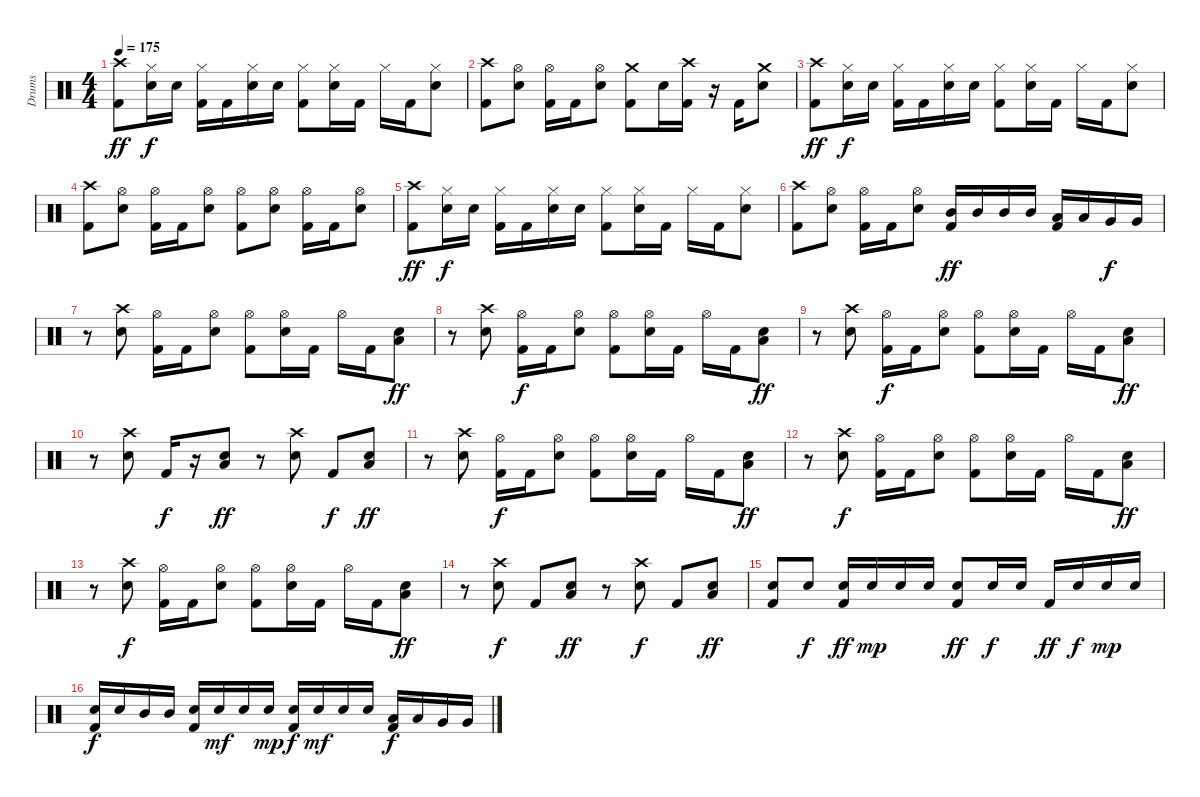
\track ("Drums" "Drums") {instrument percussion}
\staff {score}
\articulation defaults
\ts (4 4)
\tempo 175
\clef neutral
\ks c
("Crash high (hit)" "Kick (hit) 2").8{dy ff} ("Hi-Hat (closed)" "Electric Snare (hit)").16{dy f} "Electric Snare (hit)".16 ("Hi-Hat (closed)" "Kick (hit) 2").16 "Kick (hit) 2".16 ("Hi-Hat (closed)" "Electric Snare (hit)").16 "Electric Snare (hit)".16 ("Hi-Hat (closed)" "Kick (hit) 2").8 ("Hi-Hat (closed)" "Electric Snare (hit)").16 "Kick (hit) 2".16 "Hi-Hat (closed)".16 "Kick (hit) 2".16 ("Hi-Hat (closed)" "Electric Snare (hit)").8 |
("Crash high (hit)" "Kick (hit) 2").8 ("Hi-Hat (open)" "Electric Snare (hit)").8 ("Hi-Hat (open)" "Kick (hit) 2").16 "Kick (hit) 2".16 ("Hi-Hat (open)" "Electric Snare (hit)").8 ("Crash medium (hit)" "Kick (hit) 2").8 "Electric Snare (hit)".16 ("Crash high (hit)" "Kick (hit) 2").16 r.16 "Kick (hit) 2".16 ("Crash medium (hit)" "Electric Snare (hit)").8 |
("Crash high (hit)" "Kick (hit) 2").8{dy ff} ("Hi-Hat (closed)" "Electric Snare (hit)").16{dy f} "Electric Snare (hit)".16 ("Hi-Hat (closed)" "Kick (hit) 2").16 "Kick (hit) 2".16 ("Hi-Hat (closed)" "Electric Snare (hit)").16 "Electric Snare (hit)".16 ("Hi-Hat (closed)" "Kick (hit) 2").8 ("Hi-Hat (closed)" "Electric Snare (hit)").16 "Kick (hit) 2".16 "Hi-Hat (closed)".16 "Kick (hit) 2".16 ("Hi-Hat (closed)" "Electric Snare (hit)").8 |
("Crash high (hit)" "Kick (hit) 2").8 ("Hi-Hat (open)" "Electric Snare (hit)").8 ("Hi-Hat (open)" "Kick (hit) 2").16 "Kick (hit) 2".16 ("Hi-Hat (open)" "Electric Snare (hit)").8 ("Hi-Hat (open)" "Kick (hit) 2").8 ("Hi-Hat (open)" "Electric Snare (hit)").8 ("Hi-Hat (open)" "Kick (hit) 2").16 "Kick (hit) 2".16 ("Hi-Hat (open)" "Electric Snare (hit)").8 |
("Crash high (hit)" "Kick (hit) 2").8{dy ff} ("Hi-Hat (closed)" "Electric Snare (hit)").16{dy f} "Electric Snare (hit)".16 ("Hi-Hat (closed)" "Kick (hit) 2").16 "Kick (hit) 2".16 ("Hi-Hat (closed)" "Electric Snare (hit)").16 "Electric Snare (hit)".16 ("Hi-Hat (closed)" "Kick (hit) 2").8 ("Hi-Hat (closed)" "Electric Snare (hit)").16 "Kick (hit) 2".16 "Hi-Hat (closed)".16 "Kick (hit) 2".16 ("Hi-Hat (closed)" "Electric Snare (hit)").8 |
("Crash high (hit)" "Kick (hit) 2").8 ("Hi-Hat (open)" "Electric Snare (hit)").8 ("Hi-Hat (open)" "Kick (hit) 2").16 "Kick (hit) 2".16 ("Hi-Hat (open)" "Electric Snare (hit)").8 ("Mid Tom (hit)" "Kick (hit) 2").16{dy ff} "Mid Tom (hit)".16 "Mid Tom (hit)".16 "Mid Tom (hit)".16 ("Low Tom (hit)" "Kick (hit) 2").16 "Low Tom (hit)".16 "Very Low Tom (hit)".16{dy f} "Very Low Tom (hit)".16 |
r.8 ("Crash high (hit)" "Electric Snare (hit)").8 ("Hi-Hat (open)" "Kick (hit) 2").16 "Kick (hit) 2".16 ("Hi-Hat (open)" "Electric Snare (hit)").8 ("Hi-Hat (open)" "Kick (hit) 2").8 ("Hi-Hat (open)" "Electric Snare (hit)").16 "Kick (hit) 2".16 "Hi-Hat (open)".16 "Kick (hit) 2".16 ("Low Floor Tom (hit)" "Electric Snare (hit)").8{dy ff} |
r.8 ("Crash high (hit)" "Electric Snare (hit)").8 ("Hi-Hat (open)" "Kick (hit) 2").16{dy f} "Kick (hit) 2".16 ("Hi-Hat (open)" "Electric Snare (hit)").8 ("Hi-Hat (open)" "Kick (hit) 2").8 ("Hi-Hat (open)" "Electric Snare (hit)").16 "Kick (hit) 2".16 "Hi-Hat (open)".16 "Kick (hit) 2".16 ("Low Floor Tom (hit)" "Electric Snare (hit)").8{dy ff} |
r.8 ("Crash high (hit)" "Electric Snare (hit)").8 ("Hi-Hat (open)" "Kick (hit) 2").16{dy f} "Kick (hit) 2".16 ("Hi-Hat (open)" "Electric Snare (hit)").8 ("Hi-Hat (open)" "Kick (hit) 2").8 ("Hi-Hat (open)" "Electric Snare (hit)").16 "Kick (hit) 2".16 "Hi-Hat (open)".16 "Kick (hit) 2".16 ("Low Floor Tom (hit)" "Electric Snare (hit)").8{dy ff} |
r.8 ("Crash high (hit)" "Electric Snare (hit)").8 "Kick (hit) 2".16{dy f} r.16 ("Low Floor Tom (hit)" "Electric Snare (hit)").8{dy ff} r.8 ("Crash high (hit)" "Electric Snare (hit)").8 "Kick (hit) 2".8{dy f} ("Low Floor Tom (hit)" "Electric Snare (hit)").8{dy ff} |
r.8 ("Crash high (hit)" "Electric Snare (hit)").8 ("Hi-Hat (open)" "Kick (hit) 2").16{dy f} "Kick (hit) 2".16 ("Hi-Hat (open)" "Electric Snare (hit)").8 ("Hi-Hat (open)" "Kick (hit) 2").8 ("Hi-Hat (open)" "Electric Snare (hit)").16 "Kick (hit) 2".16 "Hi-Hat (open)".16 "Kick (hit) 2".16 ("Low Floor Tom (hit)" "Electric Snare (hit)").8{dy ff} |
r.8 ("Crash high (hit)" "Electric Snare (hit)").8{dy f} ("Hi-Hat (open)" "Kick (hit) 2").16 "Kick (hit) 2".16 ("Hi-Hat (open)" "Electric Snare (hit)").8 ("Hi-Hat (open)" "Kick (hit) 2").8 ("Hi-Hat (open)" "Electric Snare (hit)").16 "Kick (hit) 2".16 "Hi-Hat (open)".16 "Kick (hit) 2".16 ("Low Floor Tom (hit)" "Electric Snare (hit)").8{dy ff} |
r.8 ("Crash high (hit)" "Electric Snare (hit)").8{dy f} ("Hi-Hat (open)" "Kick (hit) 2").16 "Kick (hit) 2".16 ("Hi-Hat (open)" "Electric Snare (hit)").8 ("Hi-Hat (open)" "Kick (hit) 2").8 ("Hi-Hat (open)" "Electric Snare (hit)").16 "Kick (hit) 2".16 "Hi-Hat (open)".16 "Kick (hit) 2".16 ("Low Floor Tom (hit)" "Electric Snare (hit)").8{dy ff} |
r.8 ("Crash high (hit)" "Electric Snare (hit)").8{dy f} "Kick (hit) 2".8 ("Low Floor Tom (hit)" "Electric Snare (hit)").8{dy ff} r.8 ("Crash high (hit)" "Electric Snare (hit)").8{dy f} "Kick (hit) 2".8 ("Low Floor Tom (hit)" "Electric Snare (hit)").8{dy ff} |
("Electric Snare (hit)" "Kick (hit) 2").8 "Electric Snare (hit)".8{dy f} ("Electric Snare (hit)" "Kick (hit) 2").16{dy ff} "Electric Snare (hit)".16{dy mp} "Electric Snare (hit)".16 "Electric Snare (hit)".16 ("Electric Snare (hit)" "Kick (hit) 2").8{dy ff} "Electric Snare (hit)".16{dy f} "Electric Snare (hit)".16 "Kick (hit) 2".16{dy ff} "Electric Snare (hit)".16{dy f} "Electric Snare (hit)".16{dy mp} "Electric Snare (hit)".16 |
("Electric Snare (hit)" "Kick (hit) 2").16{dy f} "Electric Snare (hit)".16 "Mid Tom (hit)".16 "Mid Tom (hit)".16 ("Electric Snare (hit)" "Kick (hit) 2").16 "Electric Snare (hit)".16{dy mf} "Electric Snare (hit)".16 "Electric Snare (hit)".16{dy mp} ("Electric Snare (hit)" "Kick (hit) 2").16{dy f} "Electric Snare (hit)".16{dy mf} "Electric Snare (hit)".16 "Electric Snare (hit)".16 ("Low Tom (hit)" "Kick (hit) 2").16{dy f} "Low Tom (hit)".16 "Very Low Tom (hit)".16 "Very Low Tom (hit)".16
